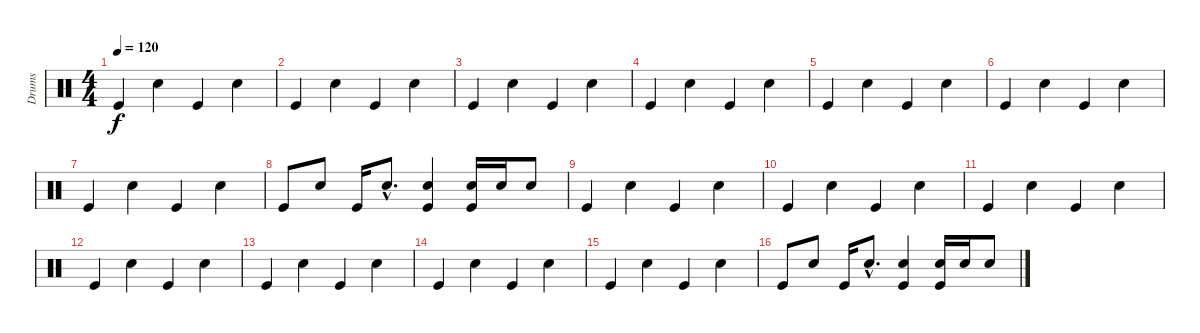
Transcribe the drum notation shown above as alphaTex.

\track ("Drums" "Drums") {instrument percussion}
\staff {score}
\articulation defaults
\ts (4 4)
\tempo 120
\clef neutral
\ks c "Kick (hit)".4{dy f} "Snare (hit) 2".4 "Kick (hit)".4 "Snare (hit) 2".4
|
"Kick (hit)".4 "Snare (hit) 2".4 "Kick (hit)".4 "Snare (hit) 2".4 |
"Kick (hit)".4 "Snare (hit) 2".4 "Kick (hit)".4 "Snare (hit) 2".4 |
"Kick (hit)".4 "Snare (hit) 2".4 "Kick (hit)".4 "Snare (hit) 2".4 |
"Kick (hit)".4 "Snare (hit) 2".4 "Kick (hit)".4 "Snare (hit) 2".4 |
"Kick (hit)".4 "Snare (hit) 2".4 "Kick (hit)".4 "Snare (hit) 2".4 |
"Kick (hit)".4 "Snare (hit) 2".4 "Kick (hit)".4 "Snare (hit) 2".4 |
"Kick (hit)".8 "Snare (hit) 2".8 "Kick (hit)".16 "Snare (hit) 2"{hac}.8{d} ("Kick (hit)" "Snare (hit) 2").4 ("Kick (hit)" "Snare (hit) 2").16 "Snare (hit) 2".16 "Snare (hit) 2".8 |
"Kick (hit)".4 "Snare (hit) 2".4 "Kick (hit)".4 "Snare (hit) 2".4 |
"Kick (hit)".4 "Snare (hit) 2".4 "Kick (hit)".4 "Snare (hit) 2".4 |
"Kick (hit)".4 "Snare (hit) 2".4 "Kick (hit)".4 "Snare (hit) 2".4 |
"Kick (hit)".4 "Snare (hit) 2".4 "Kick (hit)".4 "Snare (hit) 2".4 |
"Kick (hit)".4 "Snare (hit) 2".4 "Kick (hit)".4 "Snare (hit) 2".4 |
"Kick (hit)".4 "Snare (hit) 2".4 "Kick (hit)".4 "Snare (hit) 2".4 |
"Kick (hit)".4 "Snare (hit) 2".4 "Kick (hit)".4 "Snare (hit) 2".4 |
"Kick (hit)".8 "Snare (hit) 2".8 "Kick (hit)".16 "Snare (hit) 2"{hac}.8{d} ("Kick (hit)" "Snare (hit) 2").4 ("Kick (hit)" "Snare (hit) 2").16 "Snare (hit) 2".16 "Snare (hit) 2".8
